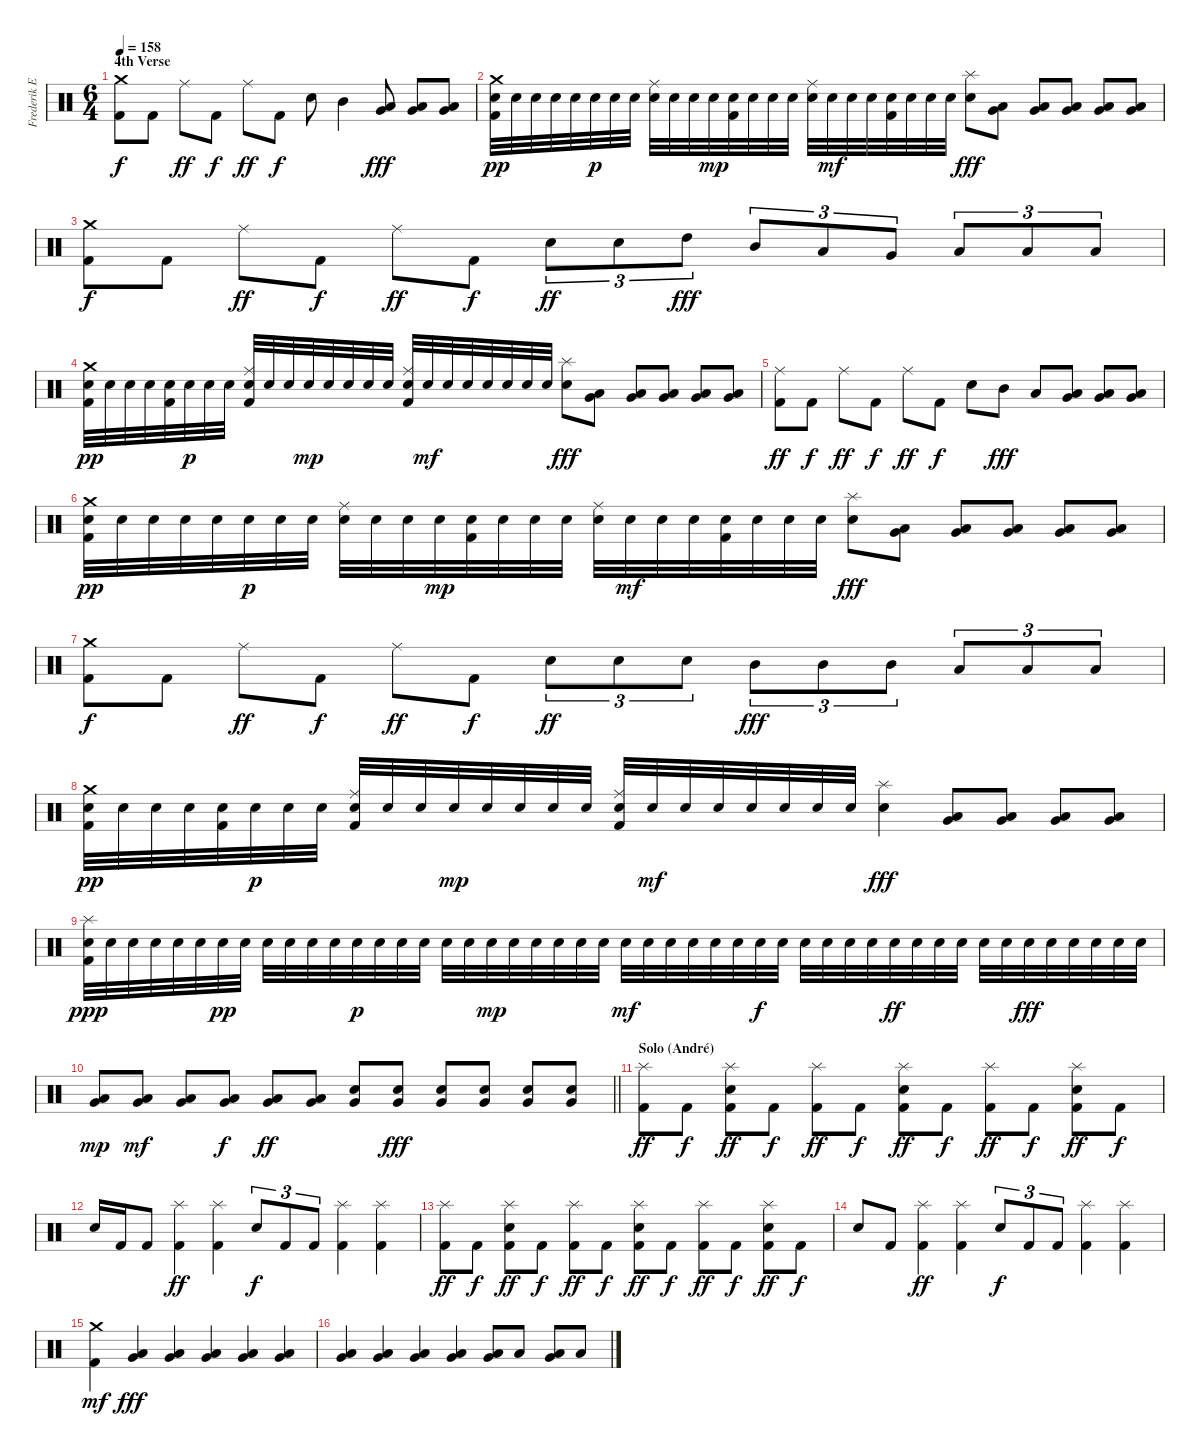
\track ("Frederik Ehmke" "Frederik E") {instrument percussion}
\staff {score}
\articulation defaults
\ts (6 4)
\section ("" "4th Verse")
\tempo 158
\clef neutral
\ks c
("Crash medium (hit)" "Kick (hit) 2").8{dy f} "Kick (hit) 2".8 "Ride (middle)".8{dy ff} "Kick (hit) 2".8{dy f} "Ride (middle)".8{dy ff} "Kick (hit) 2".8{dy f} "Electric Snare (hit)".8 "Mid Tom (hit)".4 ("Low Tom (hit)" "Very Low Tom (hit)").8{dy fff} ("Low Tom (hit)" "Very Low Tom (hit)").8 ("Low Tom (hit)" "Very Low Tom (hit)").8 |
("Crash medium (hit)" "Electric Snare (hit)" "Kick (hit) 2").32{dy pp} "Electric Snare (hit)".32 "Electric Snare (hit)".32 "Electric Snare (hit)".32 "Electric Snare (hit)".32 "Electric Snare (hit)".32{dy p} "Electric Snare (hit)".32 "Electric Snare (hit)".32 ("Ride (middle)" "Electric Snare (hit)").32 "Electric Snare (hit)".32 "Electric Snare (hit)".32 "Electric Snare (hit)".32{dy mp} ("Electric Snare (hit)" "Kick (hit) 2").32 "Electric Snare (hit)".32 "Electric Snare (hit)".32 "Electric Snare (hit)".32 ("Ride (middle)" "Electric Snare (hit)").32 "Electric Snare (hit)".32{dy mf} "Electric Snare (hit)".32 "Electric Snare (hit)".32 ("Electric Snare (hit)" "Kick (hit) 2").32 "Electric Snare (hit)".32 "Electric Snare (hit)".32 "Electric Snare (hit)".32 ("Splash (hit)" "Electric Snare (hit)").8{dy fff} ("Low Tom (hit)" "Very Low Tom (hit)").8 ("Low Tom (hit)" "Very Low Tom (hit)").8 ("Very Low Tom (hit)" "Low Floor Tom (hit)").8 ("Very Low Tom (hit)" "Low Floor Tom (hit)").8 ("Very Low Tom (hit)" "Low Floor Tom (hit)").8 |
("Crash medium (hit)" "Kick (hit) 2").8{dy f} "Kick (hit) 2".8 "Ride (middle)".8{dy ff} "Kick (hit) 2".8{dy f} "Ride (middle)".8{dy ff} "Kick (hit) 2".8{dy f} "Electric Snare (hit)".8{tu (3 2) dy ff} "Electric Snare (hit)".8{tu (3 2)} "High Tom (hit)".8{tu (3 2) dy fff} "Mid Tom (hit)".8{tu (3 2)} "Low Tom (hit)".8{tu (3 2)} "Very Low Tom (hit)".8{tu (3 2)} "Low Floor Tom (hit)".8{tu (3 2)} "Low Floor Tom (hit)".8{tu (3 2)} "Low Floor Tom (hit)".8{tu (3 2)} |
("Crash medium (hit)" "Electric Snare (hit)" "Kick (hit) 2").32{dy pp} "Electric Snare (hit)".32 "Electric Snare (hit)".32 "Electric Snare (hit)".32 ("Electric Snare (hit)" "Kick (hit) 2").32 "Electric Snare (hit)".32{dy p} "Electric Snare (hit)".32 "Electric Snare (hit)".32 ("Ride (middle)" "Electric Snare (hit)" "Kick (hit) 2").32 "Electric Snare (hit)".32 "Electric Snare (hit)".32 "Electric Snare (hit)".32{dy mp} "Electric Snare (hit)".32 "Electric Snare (hit)".32 "Electric Snare (hit)".32 "Electric Snare (hit)".32 ("Ride (middle)" "Electric Snare (hit)" "Kick (hit) 2").32 "Electric Snare (hit)".32{dy mf} "Electric Snare (hit)".32 "Electric Snare (hit)".32 "Electric Snare (hit)".32 "Electric Snare (hit)".32 "Electric Snare (hit)".32 "Electric Snare (hit)".32 ("Splash (hit)" "Electric Snare (hit)").8{dy fff} ("Low Tom (hit)" "Very Low Tom (hit)").8 ("Low Tom (hit)" "Very Low Tom (hit)").8 ("Very Low Tom (hit)" "Low Floor Tom (hit)").8 ("Very Low Tom (hit)" "Low Floor Tom (hit)").8 ("Very Low Tom (hit)" "Low Floor Tom (hit)").8 |
("Ride (middle)" "Kick (hit) 2").8{dy ff} "Kick (hit) 2".8{dy f} "Ride (middle)".8{dy ff} "Kick (hit) 2".8{dy f} "Ride (middle)".8{dy ff} "Kick (hit) 2".8{dy f} "Electric Snare (hit)".8 "Mid Tom (hit)".8{dy fff} "Low Tom (hit)".8 ("Low Tom (hit)" "Very Low Tom (hit)").8 ("Low Tom (hit)" "Very Low Tom (hit)").8 ("Low Tom (hit)" "Very Low Tom (hit)").8 |
("Crash medium (hit)" "Electric Snare (hit)" "Kick (hit) 2").32{dy pp} "Electric Snare (hit)".32 "Electric Snare (hit)".32 "Electric Snare (hit)".32 "Electric Snare (hit)".32 "Electric Snare (hit)".32{dy p} "Electric Snare (hit)".32 "Electric Snare (hit)".32 ("Ride (middle)" "Electric Snare (hit)").32 "Electric Snare (hit)".32 "Electric Snare (hit)".32 "Electric Snare (hit)".32{dy mp} ("Electric Snare (hit)" "Kick (hit) 2").32 "Electric Snare (hit)".32 "Electric Snare (hit)".32 "Electric Snare (hit)".32 ("Ride (middle)" "Electric Snare (hit)").32 "Electric Snare (hit)".32{dy mf} "Electric Snare (hit)".32 "Electric Snare (hit)".32 ("Electric Snare (hit)" "Kick (hit) 2").32 "Electric Snare (hit)".32 "Electric Snare (hit)".32 "Electric Snare (hit)".32 ("Splash (hit)" "Electric Snare (hit)").8{dy fff} ("Low Tom (hit)" "Very Low Tom (hit)").8 ("Low Tom (hit)" "Very Low Tom (hit)").8 ("Very Low Tom (hit)" "Low Floor Tom (hit)").8 ("Very Low Tom (hit)" "Low Floor Tom (hit)").8 ("Very Low Tom (hit)" "Low Floor Tom (hit)").8 |
("Crash medium (hit)" "Kick (hit) 2").8{dy f} "Kick (hit) 2".8 "Ride (middle)".8{dy ff} "Kick (hit) 2".8{dy f} "Ride (middle)".8{dy ff} "Kick (hit) 2".8{dy f} "Electric Snare (hit)".8{tu (3 2) dy ff} "Electric Snare (hit)".8{tu (3 2)} "Electric Snare (hit)".8{tu (3 2)} "Mid Tom (hit)".8{tu (3 2) dy fff} "Mid Tom (hit)".8{tu (3 2)} "Mid Tom (hit)".8{tu (3 2)} "Low Tom (hit)".8{tu (3 2)} "Low Tom (hit)".8{tu (3 2)} "Low Tom (hit)".8{tu (3 2)} |
("Crash medium (hit)" "Electric Snare (hit)" "Kick (hit) 2").32{dy pp} "Electric Snare (hit)".32 "Electric Snare (hit)".32 "Electric Snare (hit)".32 ("Electric Snare (hit)" "Kick (hit) 2").32 "Electric Snare (hit)".32{dy p} "Electric Snare (hit)".32 "Electric Snare (hit)".32 ("Ride (middle)" "Electric Snare (hit)" "Kick (hit) 2").32 "Electric Snare (hit)".32 "Electric Snare (hit)".32 "Electric Snare (hit)".32{dy mp} "Electric Snare (hit)".32 "Electric Snare (hit)".32 "Electric Snare (hit)".32 "Electric Snare (hit)".32 ("Ride (middle)" "Electric Snare (hit)" "Kick (hit) 2").32 "Electric Snare (hit)".32{dy mf} "Electric Snare (hit)".32 "Electric Snare (hit)".32 "Electric Snare (hit)".32 "Electric Snare (hit)".32 "Electric Snare (hit)".32 "Electric Snare (hit)".32 ("Splash (hit)" "Electric Snare (hit)").4{dy fff} ("Low Tom (hit)" "Very Low Tom (hit)").8 ("Low Tom (hit)" "Very Low Tom (hit)").8 ("Very Low Tom (hit)" "Low Floor Tom (hit)").8 ("Very Low Tom (hit)" "Low Floor Tom (hit)").8 |
("Splash (hit)" "Electric Snare (hit)" "Kick (hit) 2").32{dy ppp} "Electric Snare (hit)".32 "Electric Snare (hit)".32 "Electric Snare (hit)".32 "Electric Snare (hit)".32 "Electric Snare (hit)".32 "Electric Snare (hit)".32{dy pp} "Electric Snare (hit)".32 "Electric Snare (hit)".32 "Electric Snare (hit)".32 "Electric Snare (hit)".32 "Electric Snare (hit)".32 "Electric Snare (hit)".32{dy p} "Electric Snare (hit)".32 "Electric Snare (hit)".32 "Electric Snare (hit)".32 "Electric Snare (hit)".32 "Electric Snare (hit)".32 "Electric Snare (hit)".32{dy mp} "Electric Snare (hit)".32 "Electric Snare (hit)".32 "Electric Snare (hit)".32 "Electric Snare (hit)".32 "Electric Snare (hit)".32 "Electric Snare (hit)".32{dy mf} "Electric Snare (hit)".32 "Electric Snare (hit)".32 "Electric Snare (hit)".32 "Electric Snare (hit)".32 "Electric Snare (hit)".32 "Electric Snare (hit)".32{dy f} "Electric Snare (hit)".32 "Electric Snare (hit)".32 "Electric Snare (hit)".32 "Electric Snare (hit)".32 "Electric Snare (hit)".32 "Electric Snare (hit)".32{dy ff} "Electric Snare (hit)".32 "Electric Snare (hit)".32 "Electric Snare (hit)".32 "Electric Snare (hit)".32 "Electric Snare (hit)".32 "Electric Snare (hit)".32{dy fff} "Electric Snare (hit)".32 "Electric Snare (hit)".32 "Electric Snare (hit)".32 "Electric Snare (hit)".32 "Electric Snare (hit)".32 |
\barLineRight lightlight
("Low Tom (hit)" "Very Low Tom (hit)").8{dy mp} ("Low Tom (hit)" "Very Low Tom (hit)").8{dy mf} ("Low Tom (hit)" "Very Low Tom (hit)").8 ("Low Tom (hit)" "Very Low Tom (hit)").8{dy f} ("Low Tom (hit)" "Very Low Tom (hit)").8{dy ff} ("Low Tom (hit)" "Very Low Tom (hit)").8 ("Electric Snare (hit)" "Very Low Tom (hit)").8 ("Electric Snare (hit)" "Very Low Tom (hit)").8{dy fff} ("Electric Snare (hit)" "Very Low Tom (hit)").8 ("Electric Snare (hit)" "Very Low Tom (hit)").8 ("Electric Snare (hit)" "Very Low Tom (hit)").8 ("Electric Snare (hit)" "Very Low Tom (hit)").8 |
\section ("" "Solo (André)")
("Splash (hit)" "Kick (hit) 2").8{dy ff} "Kick (hit) 2".8{dy f} ("Splash (hit)" "Electric Snare (hit)" "Kick (hit) 2").8{dy ff} "Kick (hit) 2".8{dy f} ("Splash (hit)" "Kick (hit) 2").8{dy ff} "Kick (hit) 2".8{dy f} ("Splash (hit)" "Electric Snare (hit)" "Kick (hit) 2").8{dy ff} "Kick (hit) 2".8{dy f} ("Splash (hit)" "Kick (hit) 2").8{dy ff} "Kick (hit) 2".8{dy f} ("Splash (hit)" "Electric Snare (hit)" "Kick (hit) 2").8{dy ff} "Kick (hit) 2".8{dy f} |
"Electric Snare (hit)".16 "Kick (hit) 2".16 "Kick (hit) 2".8 ("Splash (hit)" "Kick (hit) 2").4{dy ff} ("Splash (hit)" "Kick (hit) 2").4 "Electric Snare (hit)".8{tu (3 2) dy f} "Kick (hit) 2".8{tu (3 2)} "Kick (hit) 2".8{tu (3 2)} ("Splash (hit)" "Kick (hit) 2").4 ("Splash (hit)" "Kick (hit) 2").4 |
("Splash (hit)" "Kick (hit) 2").8{dy ff} "Kick (hit) 2".8{dy f} ("Splash (hit)" "Electric Snare (hit)" "Kick (hit) 2").8{dy ff} "Kick (hit) 2".8{dy f} ("Splash (hit)" "Kick (hit) 2").8{dy ff} "Kick (hit) 2".8{dy f} ("Splash (hit)" "Electric Snare (hit)" "Kick (hit) 2").8{dy ff} "Kick (hit) 2".8{dy f} ("Splash (hit)" "Kick (hit) 2").8{dy ff} "Kick (hit) 2".8{dy f} ("Splash (hit)" "Electric Snare (hit)" "Kick (hit) 2").8{dy ff} "Kick (hit) 2".8{dy f} |
"Electric Snare (hit)".8 "Kick (hit) 2".8 ("Splash (hit)" "Kick (hit) 2").4{dy ff} ("Splash (hit)" "Kick (hit) 2").4 "Electric Snare (hit)".8{tu (3 2) dy f} "Kick (hit) 2".8{tu (3 2)} "Kick (hit) 2".8{tu (3 2)} ("Splash (hit)" "Kick (hit) 2").4 ("Splash (hit)" "Kick (hit) 2").4 |
("Crash medium (hit)" "Kick (hit) 2").4{dy mf} ("Low Tom (hit)" "Very Low Tom (hit)").4{dy fff} ("Low Tom (hit)" "Very Low Tom (hit)").4 ("Low Tom (hit)" "Very Low Tom (hit)").4 ("Low Tom (hit)" "Very Low Tom (hit)").4 ("Low Tom (hit)" "Very Low Tom (hit)").4 |
("Low Tom (hit)" "Very Low Tom (hit)").4 ("Low Tom (hit)" "Very Low Tom (hit)").4 ("Low Tom (hit)" "Very Low Tom (hit)").4 ("Low Tom (hit)" "Very Low Tom (hit)").4 ("Low Tom (hit)" "Very Low Tom (hit)").8 "Low Tom (hit)".8 ("Low Tom (hit)" "Very Low Tom (hit)").8 "Low Tom (hit)".8
